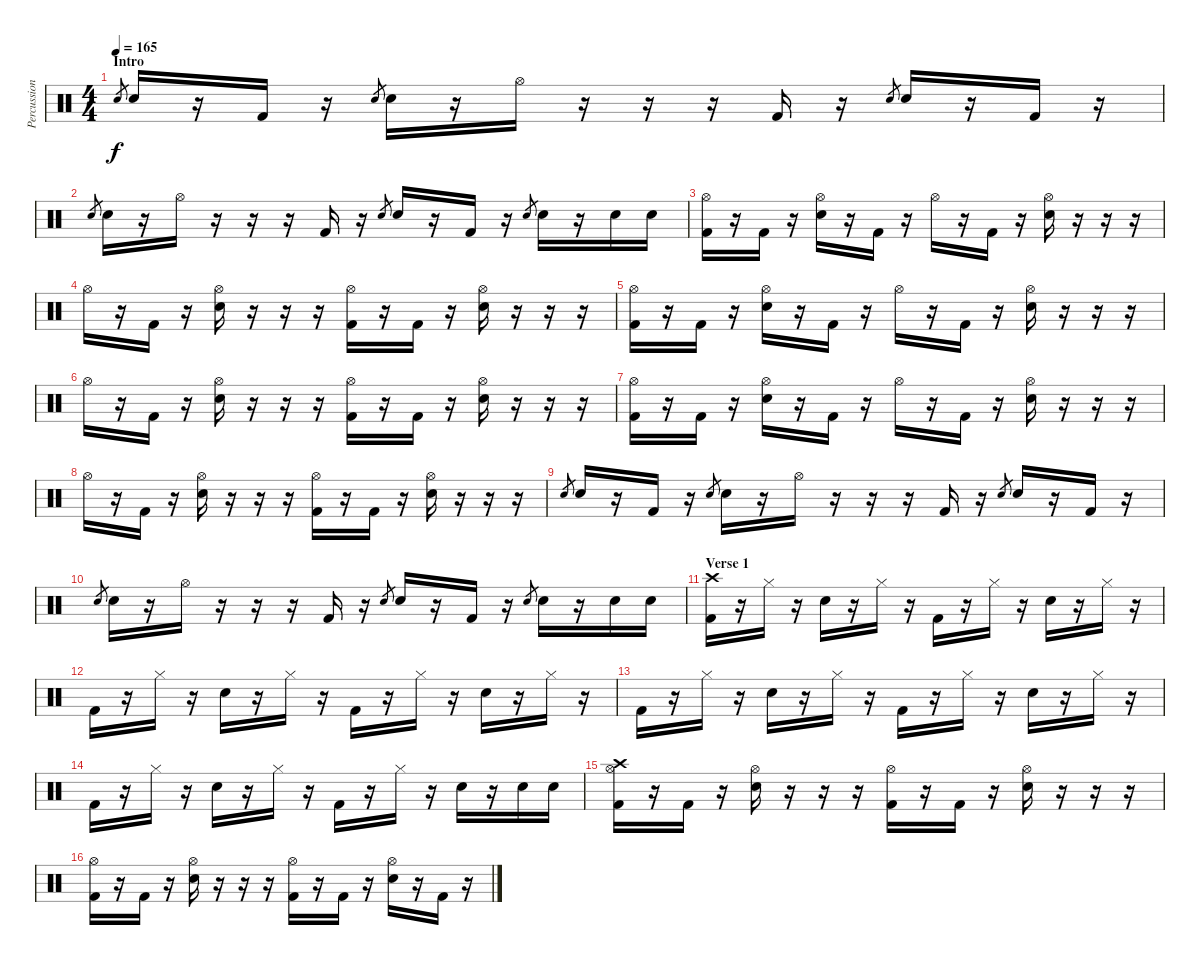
\track ("Percussion" "Percussion") {instrument percussion}
\staff {score}
\articulation defaults
\ts (4 4)
\section ("" "Intro")
\tempo 165
\clef neutral
\ks c "Snare (hit) 2".8{gr dy f} "Snare (hit) 2".16
r.16 "Kick (hit) 2".16 r.16 "Snare (hit) 2".8{gr} "Snare (hit) 2".16 r.16 "Hi-Hat (open)".16 r.16 r.16 r.16 "Kick (hit) 2".16 r.16 "Snare (hit) 2".8{gr} "Snare (hit) 2".16 r.16 "Kick (hit) 2".16 r.16 |
"Snare (hit) 2".8{gr} "Snare (hit) 2".16 r.16 "Hi-Hat (open)".16 r.16 r.16 r.16 "Kick (hit) 2".16 r.16 "Snare (hit) 2".8{gr} "Snare (hit) 2".16 r.16 "Kick (hit) 2".16 r.16 "Snare (hit) 2".8{gr} "Snare (hit) 2".16 r.16 "Snare (hit) 2".16 "Snare (hit) 2".16 |
("Hi-Hat (open)" "Kick (hit) 2").16 r.16 "Kick (hit) 2".16 r.16 ("Hi-Hat (open)" "Snare (hit) 2").16 r.16 "Kick (hit) 2".16 r.16 "Hi-Hat (open)".16 r.16 "Kick (hit) 2".16 r.16 ("Hi-Hat (open)" "Snare (hit) 2").16 r.16 r.16 r.16 |
"Hi-Hat (open)".16 r.16 "Kick (hit) 2".16 r.16 ("Hi-Hat (open)" "Snare (hit) 2").16 r.16 r.16 r.16 ("Hi-Hat (open)" "Kick (hit) 2").16 r.16 "Kick (hit) 2".16 r.16 ("Hi-Hat (open)" "Snare (hit) 2").16 r.16 r.16 r.16 |
("Hi-Hat (open)" "Kick (hit) 2").16 r.16 "Kick (hit) 2".16 r.16 ("Hi-Hat (open)" "Snare (hit) 2").16 r.16 "Kick (hit) 2".16 r.16 "Hi-Hat (open)".16 r.16 "Kick (hit) 2".16 r.16 ("Hi-Hat (open)" "Snare (hit) 2").16 r.16 r.16 r.16 |
"Hi-Hat (open)".16 r.16 "Kick (hit) 2".16 r.16 ("Hi-Hat (open)" "Snare (hit) 2").16 r.16 r.16 r.16 ("Hi-Hat (open)" "Kick (hit) 2").16 r.16 "Kick (hit) 2".16 r.16 ("Hi-Hat (open)" "Snare (hit) 2").16 r.16 r.16 r.16 |
("Hi-Hat (open)" "Kick (hit) 2").16 r.16 "Kick (hit) 2".16 r.16 ("Hi-Hat (open)" "Snare (hit) 2").16 r.16 "Kick (hit) 2".16 r.16 "Hi-Hat (open)".16 r.16 "Kick (hit) 2".16 r.16 ("Hi-Hat (open)" "Snare (hit) 2").16 r.16 r.16 r.16 |
"Hi-Hat (open)".16 r.16 "Kick (hit) 2".16 r.16 ("Hi-Hat (open)" "Snare (hit) 2").16 r.16 r.16 r.16 ("Hi-Hat (open)" "Kick (hit) 2").16 r.16 "Kick (hit) 2".16 r.16 ("Hi-Hat (open)" "Snare (hit) 2").16 r.16 r.16 r.16 |
"Snare (hit) 2".8{gr} "Snare (hit) 2".16 r.16 "Kick (hit) 2".16 r.16 "Snare (hit) 2".8{gr} "Snare (hit) 2".16 r.16 "Hi-Hat (open)".16 r.16 r.16 r.16 "Kick (hit) 2".16 r.16 "Snare (hit) 2".8{gr} "Snare (hit) 2".16 r.16 "Kick (hit) 2".16 r.16 |
"Snare (hit) 2".8{gr} "Snare (hit) 2".16 r.16 "Hi-Hat (open)".16 r.16 r.16 r.16 "Kick (hit) 2".16 r.16 "Snare (hit) 2".8{gr} "Snare (hit) 2".16 r.16 "Kick (hit) 2".16 r.16 "Snare (hit) 2".8{gr} "Snare (hit) 2".16 r.16 "Snare (hit) 2".16 "Snare (hit) 2".16 |
\section ("" "Verse 1")
("Crash high (hit)" "Kick (hit) 2").16 r.16 "Hi-Hat (closed)".16 r.16 "Snare (hit) 2".16 r.16 "Hi-Hat (closed)".16 r.16 "Kick (hit) 2".16 r.16 "Hi-Hat (closed)".16 r.16 "Snare (hit) 2".16 r.16 "Hi-Hat (closed)".16 r.16 |
"Kick (hit) 2".16 r.16 "Hi-Hat (closed)".16 r.16 "Snare (hit) 2".16 r.16 "Hi-Hat (closed)".16 r.16 "Kick (hit) 2".16 r.16 "Hi-Hat (closed)".16 r.16 "Snare (hit) 2".16 r.16 "Hi-Hat (closed)".16 r.16 |
"Kick (hit) 2".16 r.16 "Hi-Hat (closed)".16 r.16 "Snare (hit) 2".16 r.16 "Hi-Hat (closed)".16 r.16 "Kick (hit) 2".16 r.16 "Hi-Hat (closed)".16 r.16 "Snare (hit) 2".16 r.16 "Hi-Hat (closed)".16 r.16 |
"Kick (hit) 2".16 r.16 "Hi-Hat (closed)".16 r.16 "Snare (hit) 2".16 r.16 "Hi-Hat (closed)".16 r.16 "Kick (hit) 2".16 r.16 "Hi-Hat (closed)".16 r.16 "Snare (hit) 2".16 r.16 "Snare (hit) 2".16 "Snare (hit) 2".16 |
("Crash high (hit)" "Hi-Hat (open)" "Kick (hit) 2").16 r.16 "Kick (hit) 2".16 r.16 ("Hi-Hat (open)" "Snare (hit) 2").16 r.16 r.16 r.16 ("Hi-Hat (open)" "Kick (hit) 2").16 r.16 "Kick (hit) 2".16 r.16 ("Hi-Hat (open)" "Snare (hit) 2").16 r.16 r.16 r.16 |
("Hi-Hat (open)" "Kick (hit) 2").16 r.16 "Kick (hit) 2".16 r.16 ("Hi-Hat (open)" "Snare (hit) 2").16 r.16 r.16 r.16 ("Hi-Hat (open)" "Kick (hit) 2").16 r.16 "Kick (hit) 2".16 r.16 ("Hi-Hat (open)" "Snare (hit) 2").16 r.16 "Kick (hit) 2".16 r.16
